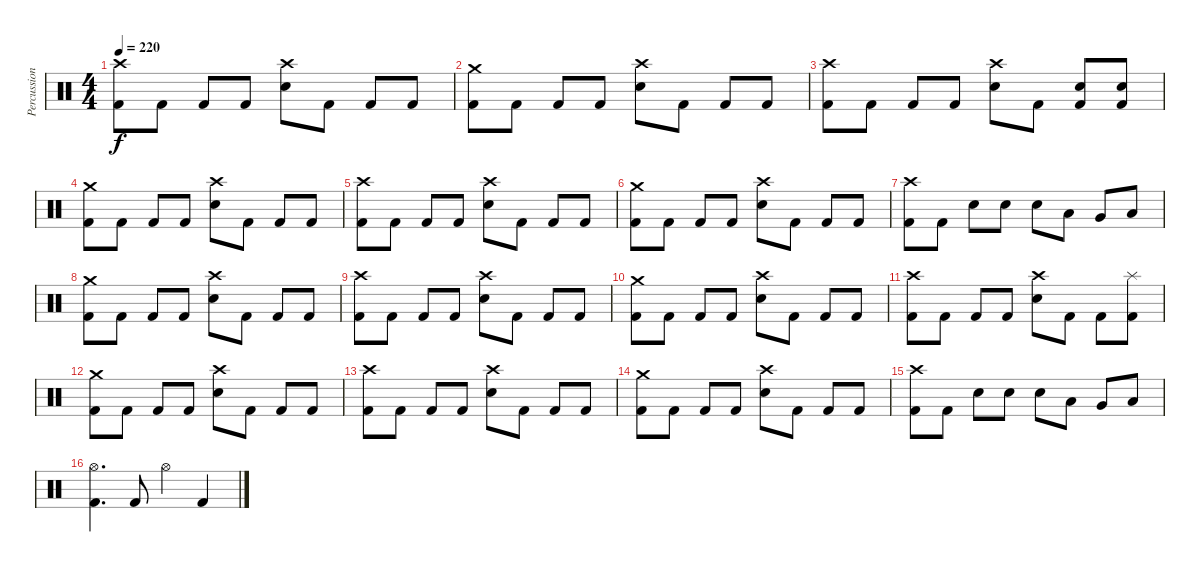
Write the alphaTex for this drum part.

\track ("Percussions" "Percussion") {instrument percussion}
\staff {score}
\articulation defaults
\ts (4 4)
\tempo 220
\clef neutral
\ks c
("Crash high (hit)" "Kick (hit) 2").8{dy f} "Kick (hit) 2".8 "Kick (hit) 2".8 "Kick (hit) 2".8 ("Crash high (hit)" "Electric Snare (hit)").8 "Kick (hit) 2".8 "Kick (hit) 2".8 "Kick (hit) 2".8 |
("Crash medium (hit)" "Kick (hit) 2").8 "Kick (hit) 2".8 "Kick (hit) 2".8 "Kick (hit) 2".8 ("Crash high (hit)" "Electric Snare (hit)").8 "Kick (hit) 2".8 "Kick (hit) 2".8 "Kick (hit) 2".8 |
("Crash high (hit)" "Kick (hit) 2").8 "Kick (hit) 2".8 "Kick (hit) 2".8 "Kick (hit) 2".8 ("Crash high (hit)" "Electric Snare (hit)").8 "Kick (hit) 2".8 ("Electric Snare (hit)" "Kick (hit) 2").8 ("Electric Snare (hit)" "Kick (hit) 2").8 |
("Crash medium (hit)" "Kick (hit) 2").8 "Kick (hit) 2".8 "Kick (hit) 2".8 "Kick (hit) 2".8 ("Crash high (hit)" "Electric Snare (hit)").8 "Kick (hit) 2".8 "Kick (hit) 2".8 "Kick (hit) 2".8 |
("Crash high (hit)" "Kick (hit) 2").8 "Kick (hit) 2".8 "Kick (hit) 2".8 "Kick (hit) 2".8 ("Crash high (hit)" "Electric Snare (hit)").8 "Kick (hit) 2".8 "Kick (hit) 2".8 "Kick (hit) 2".8 |
("Crash medium (hit)" "Kick (hit) 2").8 "Kick (hit) 2".8 "Kick (hit) 2".8 "Kick (hit) 2".8 ("Crash high (hit)" "Electric Snare (hit)").8 "Kick (hit) 2".8 "Kick (hit) 2".8 "Kick (hit) 2".8 |
("Crash high (hit)" "Kick (hit) 2").8 "Kick (hit) 2".8 "Electric Snare (hit)".8 "Electric Snare (hit)".8 "Electric Snare (hit)".8 "Low Tom (hit)".8 "Very Low Tom (hit)".8 "Low Floor Tom (hit)".8 |
("Crash medium (hit)" "Kick (hit) 2").8 "Kick (hit) 2".8 "Kick (hit) 2".8 "Kick (hit) 2".8 ("Crash high (hit)" "Electric Snare (hit)").8 "Kick (hit) 2".8 "Kick (hit) 2".8 "Kick (hit) 2".8 |
("Crash high (hit)" "Kick (hit) 2").8 "Kick (hit) 2".8 "Kick (hit) 2".8 "Kick (hit) 2".8 ("Crash high (hit)" "Electric Snare (hit)").8 "Kick (hit) 2".8 "Kick (hit) 2".8 "Kick (hit) 2".8 |
("Crash medium (hit)" "Kick (hit) 2").8 "Kick (hit) 2".8 "Kick (hit) 2".8 "Kick (hit) 2".8 ("Crash high (hit)" "Electric Snare (hit)").8 "Kick (hit) 2".8 "Kick (hit) 2".8 "Kick (hit) 2".8 |
("Crash high (hit)" "Kick (hit) 2").8 "Kick (hit) 2".8 "Kick (hit) 2".8 "Kick (hit) 2".8 ("Crash high (hit)" "Electric Snare (hit)").8 "Kick (hit) 2".8 "Kick (hit) 2".8 ("Splash (hit)" "Kick (hit) 2").8 |
("Crash medium (hit)" "Kick (hit) 2").8 "Kick (hit) 2".8 "Kick (hit) 2".8 "Kick (hit) 2".8 ("Crash high (hit)" "Electric Snare (hit)").8 "Kick (hit) 2".8 "Kick (hit) 2".8 "Kick (hit) 2".8 |
("Crash high (hit)" "Kick (hit) 2").8 "Kick (hit) 2".8 "Kick (hit) 2".8 "Kick (hit) 2".8 ("Crash high (hit)" "Electric Snare (hit)").8 "Kick (hit) 2".8 "Kick (hit) 2".8 "Kick (hit) 2".8 |
("Crash medium (hit)" "Kick (hit) 2").8 "Kick (hit) 2".8 "Kick (hit) 2".8 "Kick (hit) 2".8 ("Crash high (hit)" "Electric Snare (hit)").8 "Kick (hit) 2".8 "Kick (hit) 2".8 "Kick (hit) 2".8 |
("Crash high (hit)" "Kick (hit) 2").8 "Kick (hit) 2".8 "Electric Snare (hit)".8 "Electric Snare (hit)".8 "Electric Snare (hit)".8 "Low Tom (hit)".8 "Very Low Tom (hit)".8 "Low Floor Tom (hit)".8 |
("Hi-Hat (open)" "Kick (hit) 2").4{d} "Kick (hit) 2".8 "Hi-Hat (open)".4 "Kick (hit) 2".4
